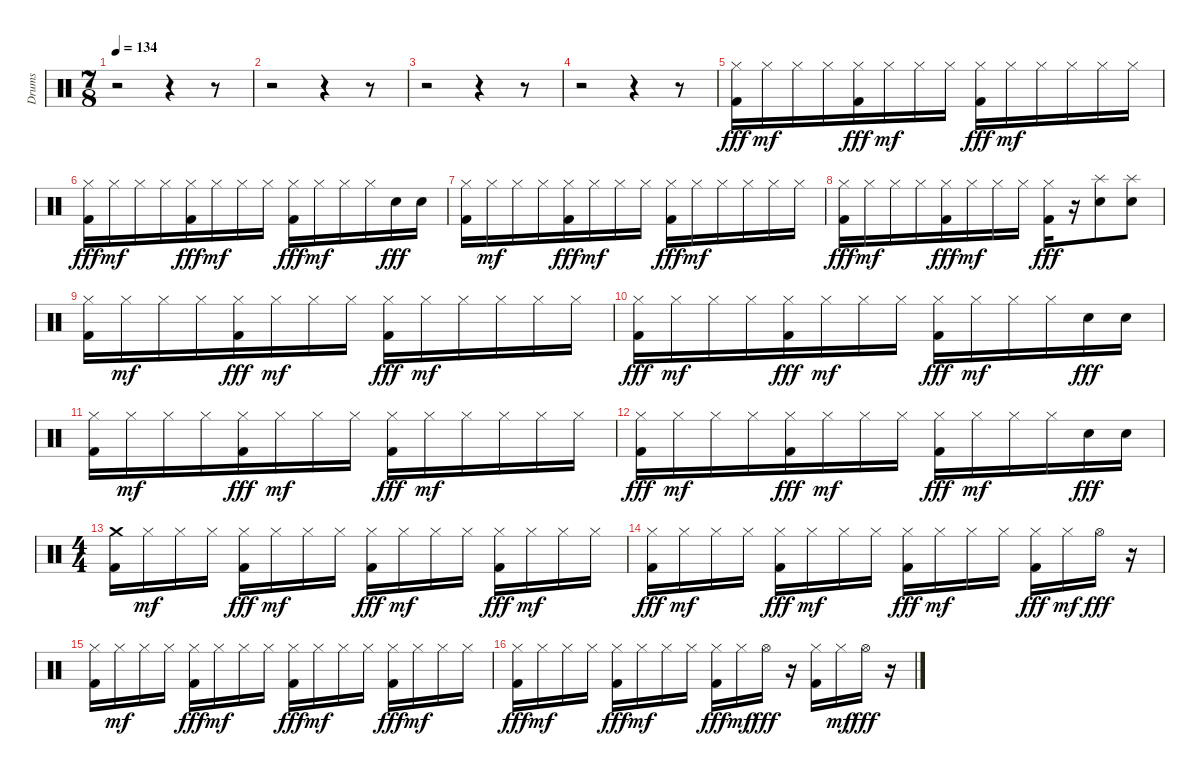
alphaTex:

\track ("Drums" "Drums") {instrument percussion}
\staff {score}
\articulation defaults
\ts (7 8)
\tempo 134
\clef neutral
\ks c
r.2{dy fff} r.4 r.8 |
r.2 r.4 r.8 |
r.2 r.4 r.8 |
r.2 r.4 r.8 |
("Hi-Hat (closed)" "Kick (hit) 2").16 "Hi-Hat (closed)".16{dy mf} "Hi-Hat (closed)".16 "Hi-Hat (closed)".16 ("Hi-Hat (closed)" "Kick (hit) 2").16{dy fff} "Hi-Hat (closed)".16{dy mf} "Hi-Hat (closed)".16 "Hi-Hat (closed)".16 ("Hi-Hat (closed)" "Kick (hit) 2").16{dy fff} "Hi-Hat (closed)".16{dy mf} "Hi-Hat (closed)".16 "Hi-Hat (closed)".16 "Hi-Hat (closed)".16 "Hi-Hat (closed)".16 |
("Hi-Hat (closed)" "Kick (hit) 2").16{dy fff} "Hi-Hat (closed)".16{dy mf} "Hi-Hat (closed)".16 "Hi-Hat (closed)".16 ("Hi-Hat (closed)" "Kick (hit) 2").16{dy fff} "Hi-Hat (closed)".16{dy mf} "Hi-Hat (closed)".16 "Hi-Hat (closed)".16 ("Hi-Hat (closed)" "Kick (hit) 2").16{dy fff} "Hi-Hat (closed)".16{dy mf} "Hi-Hat (closed)".16 "Hi-Hat (closed)".16 "Snare (hit) 2".16{dy fff} "Snare (hit) 2".16 |
("Hi-Hat (closed)" "Kick (hit) 2").16 "Hi-Hat (closed)".16{dy mf} "Hi-Hat (closed)".16 "Hi-Hat (closed)".16 ("Hi-Hat (closed)" "Kick (hit) 2").16{dy fff} "Hi-Hat (closed)".16{dy mf} "Hi-Hat (closed)".16 "Hi-Hat (closed)".16 ("Hi-Hat (closed)" "Kick (hit) 2").16{dy fff} "Hi-Hat (closed)".16{dy mf} "Hi-Hat (closed)".16 "Hi-Hat (closed)".16 "Hi-Hat (closed)".16 "Hi-Hat (closed)".16 |
("Hi-Hat (closed)" "Kick (hit) 2").16{dy fff} "Hi-Hat (closed)".16{dy mf} "Hi-Hat (closed)".16 "Hi-Hat (closed)".16 ("Hi-Hat (closed)" "Kick (hit) 2").16{dy fff} "Hi-Hat (closed)".16{dy mf} "Hi-Hat (closed)".16 "Hi-Hat (closed)".16 ("Hi-Hat (closed)" "Kick (hit) 2").16{dy fff} r.16 ("Splash (hit)" "Snare (hit) 2").8 ("Splash (hit)" "Snare (hit) 2").8 |
("Hi-Hat (closed)" "Kick (hit) 2").16 "Hi-Hat (closed)".16{dy mf} "Hi-Hat (closed)".16 "Hi-Hat (closed)".16 ("Hi-Hat (closed)" "Kick (hit) 2").16{dy fff} "Hi-Hat (closed)".16{dy mf} "Hi-Hat (closed)".16 "Hi-Hat (closed)".16 ("Hi-Hat (closed)" "Kick (hit) 2").16{dy fff} "Hi-Hat (closed)".16{dy mf} "Hi-Hat (closed)".16 "Hi-Hat (closed)".16 "Hi-Hat (closed)".16 "Hi-Hat (closed)".16 |
("Hi-Hat (closed)" "Kick (hit) 2").16{dy fff} "Hi-Hat (closed)".16{dy mf} "Hi-Hat (closed)".16 "Hi-Hat (closed)".16 ("Hi-Hat (closed)" "Kick (hit) 2").16{dy fff} "Hi-Hat (closed)".16{dy mf} "Hi-Hat (closed)".16 "Hi-Hat (closed)".16 ("Hi-Hat (closed)" "Kick (hit) 2").16{dy fff} "Hi-Hat (closed)".16{dy mf} "Hi-Hat (closed)".16 "Hi-Hat (closed)".16 "Snare (hit) 2".16{dy fff} "Snare (hit) 2".16 |
("Hi-Hat (closed)" "Kick (hit) 2").16 "Hi-Hat (closed)".16{dy mf} "Hi-Hat (closed)".16 "Hi-Hat (closed)".16 ("Hi-Hat (closed)" "Kick (hit) 2").16{dy fff} "Hi-Hat (closed)".16{dy mf} "Hi-Hat (closed)".16 "Hi-Hat (closed)".16 ("Hi-Hat (closed)" "Kick (hit) 2").16{dy fff} "Hi-Hat (closed)".16{dy mf} "Hi-Hat (closed)".16 "Hi-Hat (closed)".16 "Hi-Hat (closed)".16 "Hi-Hat (closed)".16 |
("Hi-Hat (closed)" "Kick (hit) 2").16{dy fff} "Hi-Hat (closed)".16{dy mf} "Hi-Hat (closed)".16 "Hi-Hat (closed)".16 ("Hi-Hat (closed)" "Kick (hit) 2").16{dy fff} "Hi-Hat (closed)".16{dy mf} "Hi-Hat (closed)".16 "Hi-Hat (closed)".16 ("Hi-Hat (closed)" "Kick (hit) 2").16{dy fff} "Hi-Hat (closed)".16{dy mf} "Hi-Hat (closed)".16 "Hi-Hat (closed)".16 "Snare (hit) 2".16{dy fff} "Snare (hit) 2".16 |
\ts (4 4)
("Crash medium (hit)" "Kick (hit) 2").16 "Hi-Hat (closed)".16{dy mf} "Hi-Hat (closed)".16 "Hi-Hat (closed)".16 ("Hi-Hat (closed)" "Kick (hit) 2").16{dy fff} "Hi-Hat (closed)".16{dy mf} "Hi-Hat (closed)".16 "Hi-Hat (closed)".16 ("Hi-Hat (closed)" "Kick (hit) 2").16{dy fff} "Hi-Hat (closed)".16{dy mf} "Hi-Hat (closed)".16 "Hi-Hat (closed)".16 ("Hi-Hat (closed)" "Kick (hit) 2").16{dy fff} "Hi-Hat (closed)".16{dy mf} "Hi-Hat (closed)".16 "Hi-Hat (closed)".16 |
("Hi-Hat (closed)" "Kick (hit) 2").16{dy fff} "Hi-Hat (closed)".16{dy mf} "Hi-Hat (closed)".16 "Hi-Hat (closed)".16 ("Hi-Hat (closed)" "Kick (hit) 2").16{dy fff} "Hi-Hat (closed)".16{dy mf} "Hi-Hat (closed)".16 "Hi-Hat (closed)".16 ("Hi-Hat (closed)" "Kick (hit) 2").16{dy fff} "Hi-Hat (closed)".16{dy mf} "Hi-Hat (closed)".16 "Hi-Hat (closed)".16 ("Hi-Hat (closed)" "Kick (hit) 2").16{dy fff} "Hi-Hat (closed)".16{dy mf} "Hi-Hat (open)".16{dy fff} r.16 |
("Hi-Hat (closed)" "Kick (hit) 2").16 "Hi-Hat (closed)".16{dy mf} "Hi-Hat (closed)".16 "Hi-Hat (closed)".16 ("Hi-Hat (closed)" "Kick (hit) 2").16{dy fff} "Hi-Hat (closed)".16{dy mf} "Hi-Hat (closed)".16 "Hi-Hat (closed)".16 ("Hi-Hat (closed)" "Kick (hit) 2").16{dy fff} "Hi-Hat (closed)".16{dy mf} "Hi-Hat (closed)".16 "Hi-Hat (closed)".16 ("Hi-Hat (closed)" "Kick (hit) 2").16{dy fff} "Hi-Hat (closed)".16{dy mf} "Hi-Hat (closed)".16 "Hi-Hat (closed)".16 |
("Hi-Hat (closed)" "Kick (hit) 2").16{dy fff} "Hi-Hat (closed)".16{dy mf} "Hi-Hat (closed)".16 "Hi-Hat (closed)".16 ("Hi-Hat (closed)" "Kick (hit) 2").16{dy fff} "Hi-Hat (closed)".16{dy mf} "Hi-Hat (closed)".16 "Hi-Hat (closed)".16 ("Hi-Hat (closed)" "Kick (hit) 2").16{dy fff} "Hi-Hat (closed)".16{dy mf} "Hi-Hat (open)".16{dy fff} r.16 ("Hi-Hat (closed)" "Kick (hit) 2").16 "Hi-Hat (closed)".16{dy mf} "Hi-Hat (open)".16{dy fff} r.16
